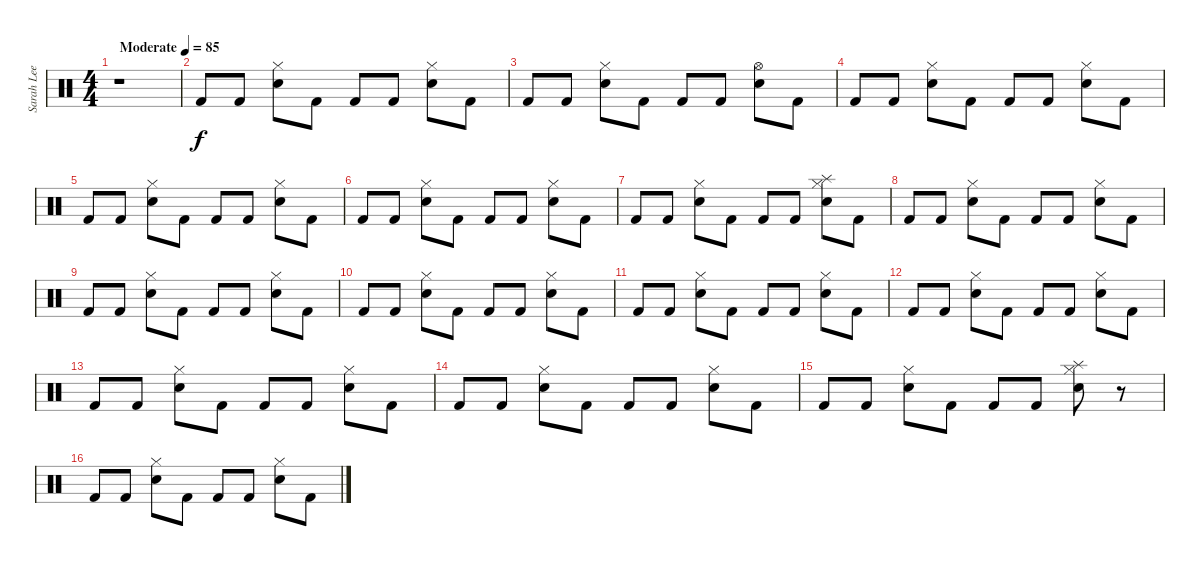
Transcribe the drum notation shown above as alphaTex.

\track ("Sarah Lee Lucas" "Sarah Lee ") {instrument percussion}
\staff {score}
\articulation defaults
\ts (4 4)
\tempo (85 "Moderate")
\clef neutral
\ks c
r.1{dy f} |
"Kick (hit) 2".8 "Kick (hit) 2".8 ("Hi-Hat (closed)" "Electric Snare (hit)").8 "Kick (hit) 2".8 "Kick (hit) 2".8 "Kick (hit) 2".8 ("Hi-Hat (closed)" "Electric Snare (hit)").8 "Kick (hit) 2".8 |
"Kick (hit) 2".8 "Kick (hit) 2".8 ("Hi-Hat (closed)" "Electric Snare (hit)").8 "Kick (hit) 2".8 "Kick (hit) 2".8 "Kick (hit) 2".8 ("Hi-Hat (open)" "Electric Snare (hit)").8 "Kick (hit) 2".8 |
"Kick (hit) 2".8 "Kick (hit) 2".8 ("Hi-Hat (closed)" "Electric Snare (hit)").8 "Kick (hit) 2".8 "Kick (hit) 2".8 "Kick (hit) 2".8 ("Hi-Hat (closed)" "Electric Snare (hit)").8 "Kick (hit) 2".8 |
"Kick (hit) 2".8 "Kick (hit) 2".8 ("Hi-Hat (closed)" "Electric Snare (hit)").8 "Kick (hit) 2".8 "Kick (hit) 2".8 "Kick (hit) 2".8 ("Hi-Hat (closed)" "Electric Snare (hit)").8 "Kick (hit) 2".8 |
"Kick (hit) 2".8 "Kick (hit) 2".8 ("Hi-Hat (closed)" "Electric Snare (hit)").8 "Kick (hit) 2".8 "Kick (hit) 2".8 "Kick (hit) 2".8 ("Hi-Hat (closed)" "Electric Snare (hit)").8 "Kick (hit) 2".8 |
"Kick (hit) 2".8 "Kick (hit) 2".8 ("Hi-Hat (closed)" "Electric Snare (hit)").8 "Kick (hit) 2".8 "Kick (hit) 2".8 "Kick (hit) 2".8 ("Splash (hit)" "Hi-Hat (closed)" "Electric Snare (hit)").8 "Kick (hit) 2".8 |
"Kick (hit) 2".8 "Kick (hit) 2".8 ("Hi-Hat (closed)" "Electric Snare (hit)").8 "Kick (hit) 2".8 "Kick (hit) 2".8 "Kick (hit) 2".8 ("Hi-Hat (closed)" "Electric Snare (hit)").8 "Kick (hit) 2".8 |
"Kick (hit) 2".8 "Kick (hit) 2".8 ("Hi-Hat (closed)" "Electric Snare (hit)").8 "Kick (hit) 2".8 "Kick (hit) 2".8 "Kick (hit) 2".8 ("Hi-Hat (closed)" "Electric Snare (hit)").8 "Kick (hit) 2".8 |
"Kick (hit) 2".8 "Kick (hit) 2".8 ("Hi-Hat (closed)" "Electric Snare (hit)").8 "Kick (hit) 2".8 "Kick (hit) 2".8 "Kick (hit) 2".8 ("Hi-Hat (closed)" "Electric Snare (hit)").8 "Kick (hit) 2".8 |
"Kick (hit) 2".8 "Kick (hit) 2".8 ("Hi-Hat (closed)" "Electric Snare (hit)").8 "Kick (hit) 2".8 "Kick (hit) 2".8 "Kick (hit) 2".8 ("Hi-Hat (closed)" "Electric Snare (hit)").8 "Kick (hit) 2".8 |
"Kick (hit) 2".8 "Kick (hit) 2".8 ("Hi-Hat (closed)" "Electric Snare (hit)").8 "Kick (hit) 2".8 "Kick (hit) 2".8 "Kick (hit) 2".8 ("Hi-Hat (closed)" "Electric Snare (hit)").8 "Kick (hit) 2".8 |
"Kick (hit) 2".8 "Kick (hit) 2".8 ("Hi-Hat (closed)" "Electric Snare (hit)").8 "Kick (hit) 2".8 "Kick (hit) 2".8 "Kick (hit) 2".8 ("Hi-Hat (closed)" "Electric Snare (hit)").8 "Kick (hit) 2".8 |
"Kick (hit) 2".8 "Kick (hit) 2".8 ("Hi-Hat (closed)" "Electric Snare (hit)").8 "Kick (hit) 2".8 "Kick (hit) 2".8 "Kick (hit) 2".8 ("Hi-Hat (closed)" "Electric Snare (hit)").8 "Kick (hit) 2".8 |
"Kick (hit) 2".8 "Kick (hit) 2".8 ("Hi-Hat (closed)" "Electric Snare (hit)").8 "Kick (hit) 2".8 "Kick (hit) 2".8 "Kick (hit) 2".8 ("Splash (hit)" "Hi-Hat (closed)" "Electric Snare (hit)").8 r.8 |
"Kick (hit) 2".8 "Kick (hit) 2".8 ("Hi-Hat (closed)" "Electric Snare (hit)").8 "Kick (hit) 2".8 "Kick (hit) 2".8 "Kick (hit) 2".8 ("Hi-Hat (closed)" "Electric Snare (hit)").8 "Kick (hit) 2".8
